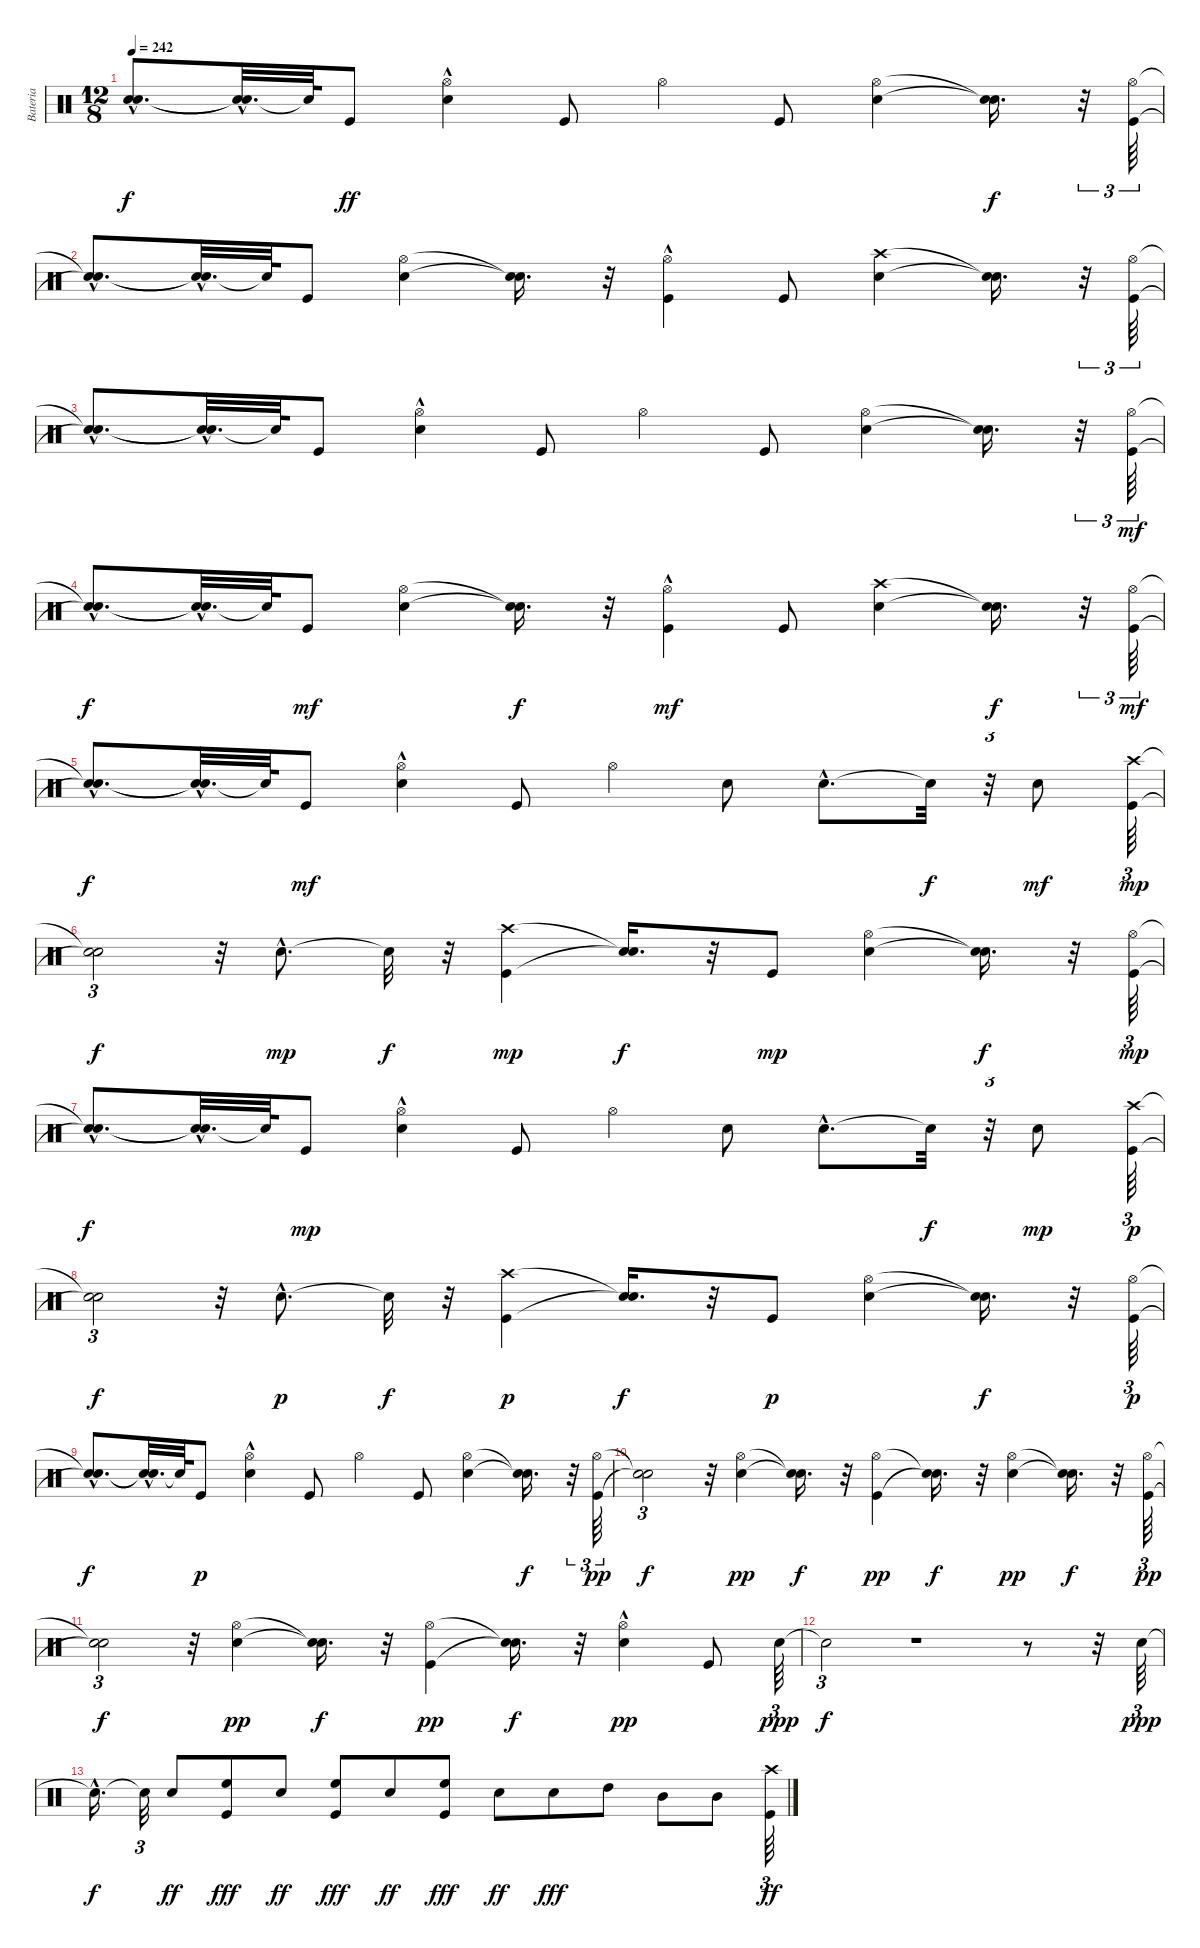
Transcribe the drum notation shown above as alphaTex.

\track ("Bateria" "Bateria") {instrument percussion}
\staff {score}
\articulation defaults
\ts (12 8)
\tempo 242
\clef neutral
\ks c
("Snare (hit)"{hac t} "Snare (hit)"{hac t}).8{d dy f} ("Snare (hit)"{t} "Snare (hit)"{hac t}).32{d} "Snare (hit)"{t}.64 "Kick (hit)".8{dy ff} ("Snare (hit) 2"{hac} "Hi-Hat (open)").4 "Kick (hit)".8 "Hi-Hat (open)".4 "Kick (hit)".8 ("Snare (hit) 2" "Hi-Hat (open)").4 ("Snare (hit)"{t} "Snare (hit)"{t}).16{d dy f} r.32{tu (3 2)} ("Kick (hit)" "Hi-Hat (open)").64{tu (3 2)} |
("Snare (hit)"{hac t} "Snare (hit)"{hac t}).8{d} ("Snare (hit)"{t} "Snare (hit)"{hac t}).32{d} "Snare (hit)"{t}.64 "Kick (hit)".8 ("Snare (hit) 2" "Hi-Hat (open)").4 ("Snare (hit)"{t} "Snare (hit)"{t}).16{d} r.32 ("Kick (hit)"{hac} "Hi-Hat (open)").4 "Kick (hit)".8 ("Snare (hit) 2" "Crash high (hit)").4 ("Snare (hit)"{t} "Snare (hit)"{t}).16{d} r.32{tu (3 2)} ("Kick (hit)" "Hi-Hat (open)").64{tu (3 2)} |
("Snare (hit)"{hac t} "Snare (hit)"{hac t}).8{d} ("Snare (hit)"{t} "Snare (hit)"{hac t}).32{d} "Snare (hit)"{t}.64 "Kick (hit)".8 ("Snare (hit) 2"{hac} "Hi-Hat (open)").4 "Kick (hit)".8 "Hi-Hat (open)".4 "Kick (hit)".8 ("Snare (hit) 2" "Hi-Hat (open)").4 ("Snare (hit)"{t} "Snare (hit)"{t}).16{d} r.32{tu (3 2)} ("Kick (hit)" "Hi-Hat (open)").64{tu (3 2) dy mf} |
("Snare (hit)"{hac t} "Snare (hit)"{hac t}).8{d dy f} ("Snare (hit)"{t} "Snare (hit)"{hac t}).32{d} "Snare (hit)"{t}.64 "Kick (hit)".8{dy mf} ("Snare (hit) 2" "Hi-Hat (open)").4 ("Snare (hit)"{t} "Snare (hit)"{t}).16{d dy f} r.32 ("Kick (hit)"{hac} "Hi-Hat (open)").4{dy mf} "Kick (hit)".8 ("Snare (hit) 2" "Crash high (hit)").4 ("Snare (hit)"{t} "Snare (hit)"{t}).16{d dy f} r.32{tu (3 2)} ("Kick (hit)" "Hi-Hat (open)").64{tu (3 2) dy mf} |
("Snare (hit)"{hac t} "Snare (hit)"{hac t}).8{d dy f} ("Snare (hit)"{t} "Snare (hit)"{hac t}).32{d} "Snare (hit)"{t}.64 "Kick (hit)".8{dy mf} ("Snare (hit) 2"{hac} "Hi-Hat (open)").4 "Kick (hit)".8 "Hi-Hat (open)".4 "Snare (hit) 2".8 "Snare (hit) 2"{hac}.8{d} "Snare (hit)"{t}.32{dy f} r.32{tu (3 2)} "Snare (hit) 2".8{dy mf} ("Kick (hit)" "Crash high (hit)").64{tu (3 2) dy mp} |
("Snare (hit)"{t} "Snare (hit)"{t}).2{tu (3 2) dy f} r.32 "Snare (hit) 2"{hac}.8{d dy mp} "Snare (hit)"{t}.32{dy f} r.32 ("Kick (hit)" "Crash high (hit)").4{dy mp} ("Snare (hit)"{t} "Snare (hit)"{t}).16{d dy f} r.32 "Kick (hit)".8{dy mp} ("Snare (hit) 2" "Hi-Hat (open)").4 ("Snare (hit)"{t} "Snare (hit)"{t}).16{d dy f} r.32 ("Kick (hit)" "Hi-Hat (open)").64{tu (3 2) dy mp} |
("Snare (hit)"{hac t} "Snare (hit)"{hac t}).8{d dy f} ("Snare (hit)"{t} "Snare (hit)"{hac t}).32{d} "Snare (hit)"{t}.64 "Kick (hit)".8{dy mp} ("Snare (hit) 2"{hac} "Hi-Hat (open)").4 "Kick (hit)".8 "Hi-Hat (open)".4 "Snare (hit) 2".8 "Snare (hit) 2"{hac}.8{d} "Snare (hit)"{t}.32{dy f} r.32{tu (3 2)} "Snare (hit) 2".8{dy mp} ("Kick (hit)" "Crash high (hit)").64{tu (3 2) dy p} |
("Snare (hit)"{t} "Snare (hit)"{t}).2{tu (3 2) dy f} r.32 "Snare (hit) 2"{hac}.8{d dy p} "Snare (hit)"{t}.32{dy f} r.32 ("Kick (hit)" "Crash high (hit)").4{dy p} ("Snare (hit)"{t} "Snare (hit)"{t}).16{d dy f} r.32 "Kick (hit)".8{dy p} ("Snare (hit) 2" "Hi-Hat (open)").4 ("Snare (hit)"{t} "Snare (hit)"{t}).16{d dy f} r.32 ("Kick (hit)" "Hi-Hat (open)").64{tu (3 2) dy p} |
("Snare (hit)"{hac t} "Snare (hit)"{hac t}).8{d dy f} ("Snare (hit)"{t} "Snare (hit)"{hac t}).32{d} "Snare (hit)"{t}.64 "Kick (hit)".8{dy p} ("Snare (hit) 2"{hac} "Hi-Hat (open)").4 "Kick (hit)".8 "Hi-Hat (open)".4 "Kick (hit)".8 ("Snare (hit) 2" "Hi-Hat (open)").4 ("Snare (hit)"{t} "Snare (hit)"{t}).16{d dy f} r.32{tu (3 2)} ("Kick (hit)" "Hi-Hat (open)").64{tu (3 2) dy pp} |
("Snare (hit)"{t} "Snare (hit)"{t}).2{tu (3 2) dy f} r.32 ("Snare (hit) 2" "Hi-Hat (open)").4{dy pp} ("Snare (hit)"{t} "Snare (hit)"{t}).16{d dy f} r.32 ("Kick (hit)" "Hi-Hat (open)").4{dy pp} ("Snare (hit)"{t} "Snare (hit)"{t}).16{d dy f} r.32 ("Snare (hit) 2" "Hi-Hat (open)").4{dy pp} ("Snare (hit)"{t} "Snare (hit)"{t}).16{d dy f} r.32 ("Kick (hit)" "Hi-Hat (open)").64{tu (3 2) dy pp} |
("Snare (hit)"{t} "Snare (hit)"{t}).2{tu (3 2) dy f} r.32 ("Snare (hit) 2" "Hi-Hat (open)").4{dy pp} ("Snare (hit)"{t} "Snare (hit)"{t}).16{d dy f} r.32 ("Kick (hit)" "Hi-Hat (open)").4{dy pp} ("Snare (hit)"{t} "Snare (hit)"{t}).16{d dy f} r.32 ("Snare (hit) 2"{hac} "Hi-Hat (open)").4{dy pp} "Kick (hit)".8 "Snare (hit) 2".64{tu (3 2) dy ppp} |
"Snare (hit)"{t}.2{tu (3 2) dy f} r.1 r.8 r.32 "Snare (hit) 2".64{tu (3 2) dy ppp} |
"Snare (hit)"{hac t}.16{d dy f} "Snare (hit)"{t}.32{tu (3 2)} "Snare (hit) 2".8{dy ff} ("Kick (hit)" "High Floor Tom (hit)").8{dy fff} "Snare (hit) 2".8{dy ff} ("Kick (hit)" "High Floor Tom (hit)").8{dy fff} "Snare (hit) 2".8{dy ff} ("Kick (hit)" "High Floor Tom (hit)").8{dy fff} "Snare (hit) 2".8{dy ff} "Snare (hit) 2".8{dy fff} "High Tom (hit)".8 "Mid Tom (hit)".8 "Mid Tom (hit)".8 ("Kick (hit)" "Crash high (hit)").64{tu (3 2) dy ff}
